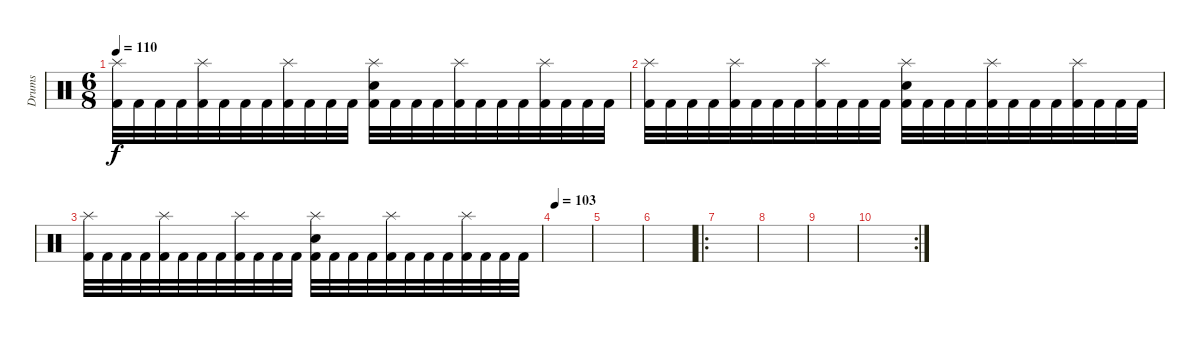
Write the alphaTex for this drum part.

\track ("Drums" "Drums") {instrument percussion}
\staff {score}
\articulation defaults
\ts (6 8)
\tempo 110
\clef neutral
\ks c
("Splash (hit)" "Kick (hit) 2").32{dy f} "Kick (hit) 2".32 "Kick (hit) 2".32 "Kick (hit) 2".32 ("Splash (hit)" "Kick (hit) 2").32 "Kick (hit) 2".32 "Kick (hit) 2".32 "Kick (hit) 2".32 ("Splash (hit)" "Kick (hit) 2").32 "Kick (hit) 2".32 "Kick (hit) 2".32 "Kick (hit) 2".32 ("Splash (hit)" "Electric Snare (hit)" "Kick (hit) 2").32 "Kick (hit) 2".32 "Kick (hit) 2".32 "Kick (hit) 2".32 ("Splash (hit)" "Kick (hit) 2").32 "Kick (hit) 2".32 "Kick (hit) 2".32 "Kick (hit) 2".32 ("Splash (hit)" "Kick (hit) 2").32 "Kick (hit) 2".32 "Kick (hit) 2".32 "Kick (hit) 2".32 |
("Splash (hit)" "Kick (hit) 2").32 "Kick (hit) 2".32 "Kick (hit) 2".32 "Kick (hit) 2".32 ("Splash (hit)" "Kick (hit) 2").32 "Kick (hit) 2".32 "Kick (hit) 2".32 "Kick (hit) 2".32 ("Splash (hit)" "Kick (hit) 2").32 "Kick (hit) 2".32 "Kick (hit) 2".32 "Kick (hit) 2".32 ("Splash (hit)" "Electric Snare (hit)" "Kick (hit) 2").32 "Kick (hit) 2".32 "Kick (hit) 2".32 "Kick (hit) 2".32 ("Splash (hit)" "Kick (hit) 2").32 "Kick (hit) 2".32 "Kick (hit) 2".32 "Kick (hit) 2".32 ("Splash (hit)" "Kick (hit) 2").32 "Kick (hit) 2".32 "Kick (hit) 2".32 "Kick (hit) 2".32 |
("Splash (hit)" "Kick (hit) 2").32 "Kick (hit) 2".32 "Kick (hit) 2".32 "Kick (hit) 2".32 ("Splash (hit)" "Kick (hit) 2").32 "Kick (hit) 2".32 "Kick (hit) 2".32 "Kick (hit) 2".32 ("Splash (hit)" "Kick (hit) 2").32 "Kick (hit) 2".32 "Kick (hit) 2".32 "Kick (hit) 2".32 ("Splash (hit)" "Electric Snare (hit)" "Kick (hit) 2").32 "Kick (hit) 2".32 "Kick (hit) 2".32 "Kick (hit) 2".32 ("Splash (hit)" "Kick (hit) 2").32 "Kick (hit) 2".32 "Kick (hit) 2".32 "Kick (hit) 2".32 ("Splash (hit)" "Kick (hit) 2").32 "Kick (hit) 2".32 "Kick (hit) 2".32 "Kick (hit) 2".32 |
\tempo 103
|
|
|
\ro
|
|
|
\rc 2
